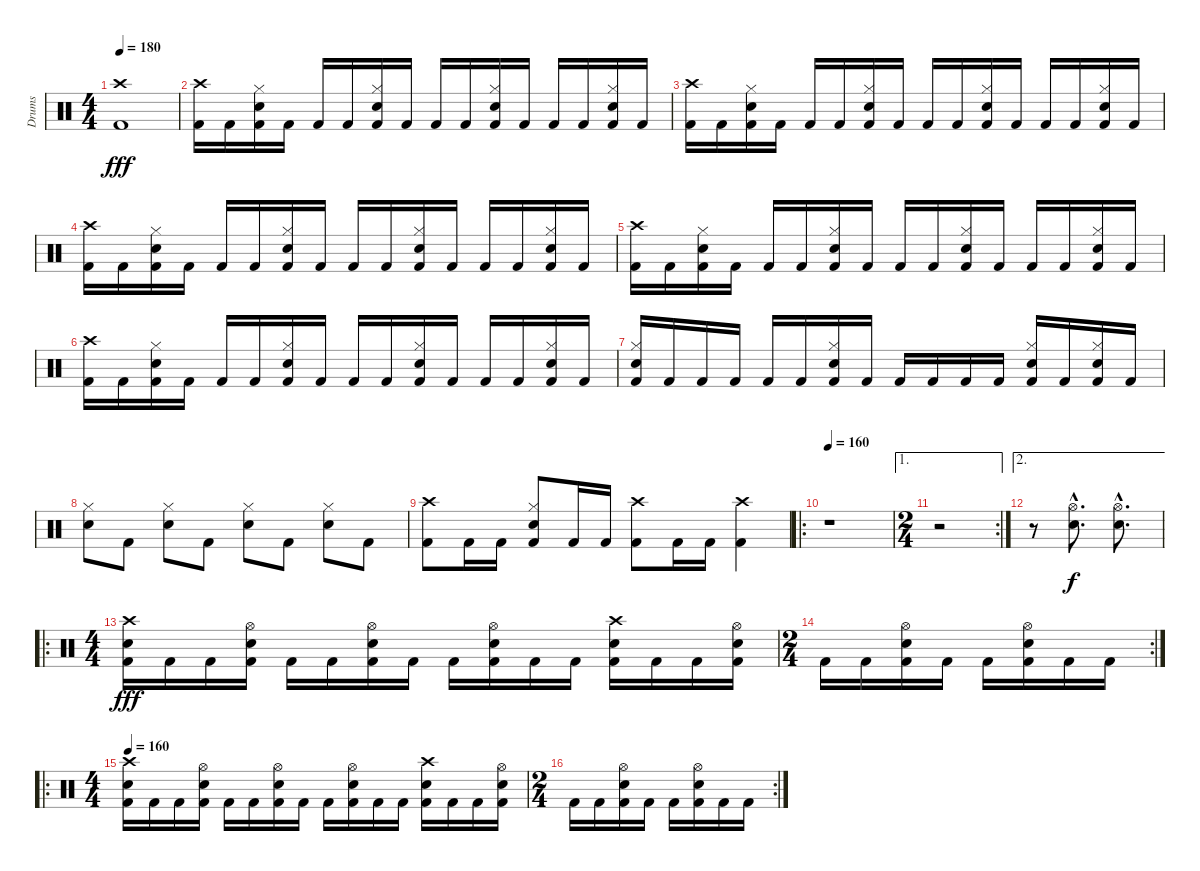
\track ("Drums" "Drums") {instrument percussion}
\staff {score}
\articulation defaults
\ts (4 4)
\tempo 180
\clef neutral
\ks c
("Crash high (hit)" "Kick (hit) 2").1{dy fff} |
("Crash high (hit)" "Kick (hit) 2").16 "Kick (hit) 2".16 ("Hi-Hat (closed)" "Snare (hit) 2" "Kick (hit) 2").16 "Kick (hit) 2".16 "Kick (hit) 2".16 "Kick (hit) 2".16 ("Hi-Hat (closed)" "Snare (hit) 2" "Kick (hit) 2").16 "Kick (hit) 2".16 "Kick (hit) 2".16 "Kick (hit) 2".16 ("Hi-Hat (closed)" "Snare (hit) 2" "Kick (hit) 2").16 "Kick (hit) 2".16 "Kick (hit) 2".16 "Kick (hit) 2".16 ("Hi-Hat (closed)" "Snare (hit) 2" "Kick (hit) 2").16 "Kick (hit) 2".16 |
("Crash high (hit)" "Kick (hit) 2").16 "Kick (hit) 2".16 ("Hi-Hat (closed)" "Snare (hit) 2" "Kick (hit) 2").16 "Kick (hit) 2".16 "Kick (hit) 2".16 "Kick (hit) 2".16 ("Hi-Hat (closed)" "Snare (hit) 2" "Kick (hit) 2").16 "Kick (hit) 2".16 "Kick (hit) 2".16 "Kick (hit) 2".16 ("Hi-Hat (closed)" "Snare (hit) 2" "Kick (hit) 2").16 "Kick (hit) 2".16 "Kick (hit) 2".16 "Kick (hit) 2".16 ("Hi-Hat (closed)" "Snare (hit) 2" "Kick (hit) 2").16 "Kick (hit) 2".16 |
("Crash high (hit)" "Kick (hit) 2").16 "Kick (hit) 2".16 ("Hi-Hat (closed)" "Snare (hit) 2" "Kick (hit) 2").16 "Kick (hit) 2".16 "Kick (hit) 2".16 "Kick (hit) 2".16 ("Hi-Hat (closed)" "Snare (hit) 2" "Kick (hit) 2").16 "Kick (hit) 2".16 "Kick (hit) 2".16 "Kick (hit) 2".16 ("Hi-Hat (closed)" "Snare (hit) 2" "Kick (hit) 2").16 "Kick (hit) 2".16 "Kick (hit) 2".16 "Kick (hit) 2".16 ("Hi-Hat (closed)" "Snare (hit) 2" "Kick (hit) 2").16 "Kick (hit) 2".16 |
("Crash high (hit)" "Kick (hit) 2").16 "Kick (hit) 2".16 ("Hi-Hat (closed)" "Snare (hit) 2" "Kick (hit) 2").16 "Kick (hit) 2".16 "Kick (hit) 2".16 "Kick (hit) 2".16 ("Hi-Hat (closed)" "Snare (hit) 2" "Kick (hit) 2").16 "Kick (hit) 2".16 "Kick (hit) 2".16 "Kick (hit) 2".16 ("Hi-Hat (closed)" "Snare (hit) 2" "Kick (hit) 2").16 "Kick (hit) 2".16 "Kick (hit) 2".16 "Kick (hit) 2".16 ("Hi-Hat (closed)" "Snare (hit) 2" "Kick (hit) 2").16 "Kick (hit) 2".16 |
("Crash high (hit)" "Kick (hit) 2").16 "Kick (hit) 2".16 ("Hi-Hat (closed)" "Snare (hit) 2" "Kick (hit) 2").16 "Kick (hit) 2".16 "Kick (hit) 2".16 "Kick (hit) 2".16 ("Hi-Hat (closed)" "Snare (hit) 2" "Kick (hit) 2").16 "Kick (hit) 2".16 "Kick (hit) 2".16 "Kick (hit) 2".16 ("Hi-Hat (closed)" "Snare (hit) 2" "Kick (hit) 2").16 "Kick (hit) 2".16 "Kick (hit) 2".16 "Kick (hit) 2".16 ("Hi-Hat (closed)" "Snare (hit) 2" "Kick (hit) 2").16 "Kick (hit) 2".16 |
("Hi-Hat (closed)" "Snare (hit) 2" "Kick (hit) 2").16 "Kick (hit) 2".16 "Kick (hit) 2".16 "Kick (hit) 2".16 "Kick (hit) 2".16 "Kick (hit) 2".16 ("Hi-Hat (closed)" "Snare (hit) 2" "Kick (hit) 2").16 "Kick (hit) 2".16 "Kick (hit) 2".16 "Kick (hit) 2".16 "Kick (hit) 2".16 "Kick (hit) 2".16 ("Hi-Hat (closed)" "Snare (hit) 2" "Kick (hit) 2").16 "Kick (hit) 2".16 ("Hi-Hat (closed)" "Snare (hit) 2" "Kick (hit) 2").16 "Kick (hit) 2".16 |
("Hi-Hat (closed)" "Snare (hit) 2").8 "Kick (hit) 2".8 ("Hi-Hat (closed)" "Snare (hit) 2").8 "Kick (hit) 2".8 ("Hi-Hat (closed)" "Snare (hit) 2").8 "Kick (hit) 2".8 ("Hi-Hat (closed)" "Snare (hit) 2").8 "Kick (hit) 2".8 |
("Crash high (hit)" "Kick (hit) 2").8 "Kick (hit) 2".16 "Kick (hit) 2".16 ("Hi-Hat (closed)" "Snare (hit) 2" "Kick (hit) 2").8 "Kick (hit) 2".16 "Kick (hit) 2".16 ("Crash high (hit)" "Kick (hit) 2").8 "Kick (hit) 2".16 "Kick (hit) 2".16 ("Crash high (hit)" "Kick (hit) 2").4 |
\ro
\tempo 160
r.1 |
\ae 1
\rc 2
\ts (2 4)
r.2 |
\ae 2
r.8 ("Hi-Hat (open)"{hac} "Snare (hit) 2"{hac}).8{d dy f} ("Hi-Hat (open)"{hac} "Snare (hit) 2"{hac}).8{d} |
\ro
\ts (4 4)
("Crash high (hit)" "Snare (hit) 2" "Kick (hit) 2").16{dy fff} "Kick (hit) 2".16 "Kick (hit) 2".16 ("Hi-Hat (open)" "Snare (hit) 2" "Kick (hit) 2").16 "Kick (hit) 2".16 "Kick (hit) 2".16 ("Hi-Hat (open)" "Snare (hit) 2" "Kick (hit) 2").16 "Kick (hit) 2".16 "Kick (hit) 2".16 ("Hi-Hat (open)" "Snare (hit) 2" "Kick (hit) 2").16 "Kick (hit) 2".16 "Kick (hit) 2".16 ("Crash high (hit)" "Snare (hit) 2" "Kick (hit) 2").16 "Kick (hit) 2".16 "Kick (hit) 2".16 ("Hi-Hat (open)" "Snare (hit) 2" "Kick (hit) 2").16 |
\rc 2
\ts (2 4)
"Kick (hit) 2".16 "Kick (hit) 2".16 ("Hi-Hat (open)" "Snare (hit) 2" "Kick (hit) 2").16 "Kick (hit) 2".16 "Kick (hit) 2".16 ("Hi-Hat (open)" "Snare (hit) 2" "Kick (hit) 2").16 "Kick (hit) 2".16 "Kick (hit) 2".16 |
\ro
\ts (4 4)
\tempo 160
("Crash high (hit)" "Snare (hit) 2" "Kick (hit) 2").16 "Kick (hit) 2".16 "Kick (hit) 2".16 ("Hi-Hat (open)" "Snare (hit) 2" "Kick (hit) 2").16 "Kick (hit) 2".16 "Kick (hit) 2".16 ("Hi-Hat (open)" "Snare (hit) 2" "Kick (hit) 2").16 "Kick (hit) 2".16 "Kick (hit) 2".16 ("Hi-Hat (open)" "Snare (hit) 2" "Kick (hit) 2").16 "Kick (hit) 2".16 "Kick (hit) 2".16 ("Crash high (hit)" "Snare (hit) 2" "Kick (hit) 2").16 "Kick (hit) 2".16 "Kick (hit) 2".16 ("Hi-Hat (open)" "Snare (hit) 2" "Kick (hit) 2").16 |
\rc 2
\ts (2 4)
"Kick (hit) 2".16 "Kick (hit) 2".16 ("Hi-Hat (open)" "Snare (hit) 2" "Kick (hit) 2").16 "Kick (hit) 2".16 "Kick (hit) 2".16 ("Hi-Hat (open)" "Snare (hit) 2" "Kick (hit) 2").16 "Kick (hit) 2".16 "Kick (hit) 2".16
